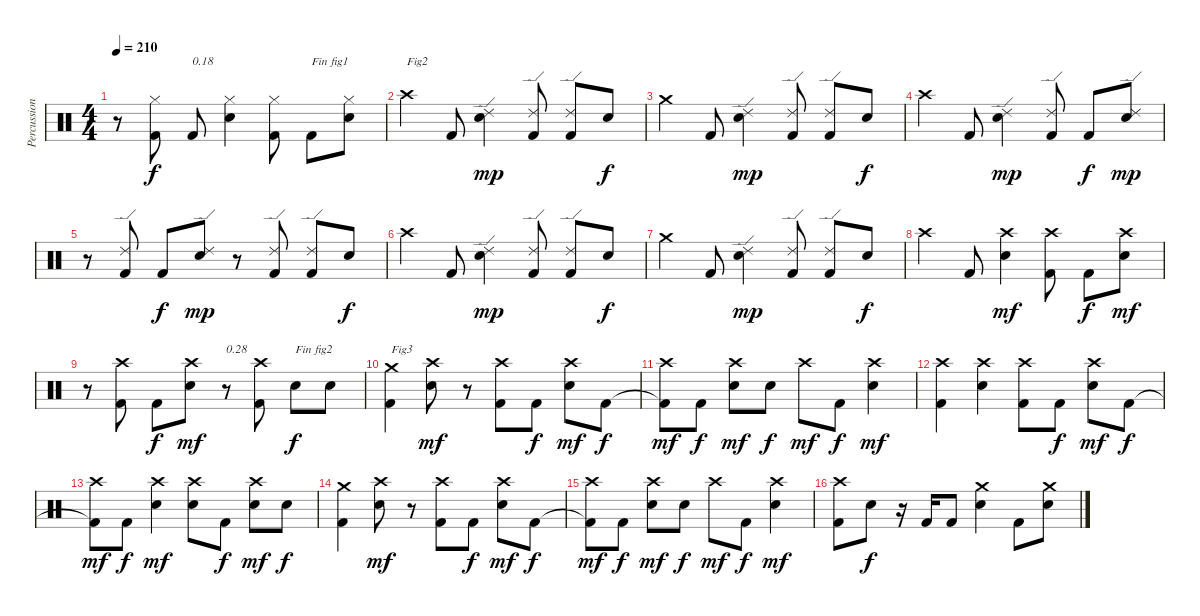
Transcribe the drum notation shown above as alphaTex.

\track ("Percussions" "Percussion") {instrument percussion}
\staff {score}
\articulation defaults
\ts (4 4)
\tempo 210
\clef neutral
\ks c
r.8{dy f} ("Kick (hit) 2" "Hi-Hat (closed)").8 "Kick (hit) 2".8{txt "0.18"} ("Electric Snare (hit)" "Hi-Hat (closed)").4 ("Kick (hit) 2" "Hi-Hat (closed)").8 "Kick (hit) 2".8{txt "Fin fig1"} ("Electric Snare (hit)" "Hi-Hat (closed)").8 |
"Crash high (hit)".4{txt "Fig2"} "Kick (hit) 2".8 ("Electric Snare (hit)" "Ride (edge) 2").4{dy mp} ("Kick (hit) 2" "Ride (edge) 2").8 ("Kick (hit) 2" "Ride (edge) 2").8 "Electric Snare (hit)".8{dy f} |
"Crash medium (hit)".4 "Kick (hit) 2".8 ("Electric Snare (hit)" "Ride (edge) 2").4{dy mp} ("Kick (hit) 2" "Ride (edge) 2").8 ("Kick (hit) 2" "Ride (edge) 2").8 "Electric Snare (hit)".8{dy f} |
"Crash high (hit)".4 "Kick (hit) 2".8 ("Electric Snare (hit)" "Ride (edge) 2").4{dy mp} ("Kick (hit) 2" "Ride (edge) 2").8 "Kick (hit) 2".8{dy f} ("Electric Snare (hit)" "Ride (edge) 2").8{dy mp} |
r.8 ("Kick (hit) 2" "Ride (edge) 2").8 "Kick (hit) 2".8{dy f} ("Electric Snare (hit)" "Ride (edge) 2").8{dy mp} r.8 ("Kick (hit) 2" "Ride (edge) 2").8 ("Kick (hit) 2" "Ride (edge) 2").8 "Electric Snare (hit)".8{dy f} |
"Crash high (hit)".4 "Kick (hit) 2".8 ("Electric Snare (hit)" "Ride (edge) 2").4{dy mp} ("Kick (hit) 2" "Ride (edge) 2").8 ("Kick (hit) 2" "Ride (edge) 2").8 "Electric Snare (hit)".8{dy f} |
"Crash medium (hit)".4 "Kick (hit) 2".8 ("Electric Snare (hit)" "Ride (edge) 2").4{dy mp} ("Kick (hit) 2" "Ride (edge) 2").8 ("Kick (hit) 2" "Ride (edge) 2").8 "Electric Snare (hit)".8{dy f} |
"Crash high (hit)".4 "Kick (hit) 2".8 ("Electric Snare (hit)" "Crash high (hit)").4{dy mf} ("Kick (hit) 2" "Crash high (hit)").8 "Kick (hit) 2".8{dy f} ("Electric Snare (hit)" "Crash high (hit)").8{dy mf} |
r.8 ("Kick (hit) 2" "Crash high (hit)").8 "Kick (hit) 2".8{dy f} ("Electric Snare (hit)" "Crash high (hit)").8{dy mf} r.8{txt "0.28"} ("Kick (hit) 2" "Crash high (hit)").8 "Electric Snare (hit)".8{txt "Fin fig2" dy f} "Electric Snare (hit)".8 |
("Kick (hit) 2" "Crash medium (hit)").4{txt "Fig3"} ("Electric Snare (hit)" "Crash high (hit)").8{dy mf} r.8 ("Kick (hit) 2" "Crash high (hit)").8 "Kick (hit) 2".8{dy f} ("Electric Snare (hit)" "Crash high (hit)").8{dy mf} "Kick (hit) 2".8{dy f} |
("Kick (hit) 2"{t} "Crash high (hit)").8{dy mf} "Kick (hit) 2".8{dy f} ("Electric Snare (hit)" "Crash high (hit)").8{dy mf} "Electric Snare (hit)".8{dy f} "Crash high (hit)".8{dy mf} "Kick (hit) 2".8{dy f} ("Electric Snare (hit)" "Crash high (hit)").4{dy mf} |
("Kick (hit) 2" "Crash high (hit)").4 ("Electric Snare (hit)" "Crash high (hit)").4 ("Kick (hit) 2" "Crash high (hit)").8 "Kick (hit) 2".8{dy f} ("Electric Snare (hit)" "Crash high (hit)").8{dy mf} "Kick (hit) 2".8{dy f} |
("Kick (hit) 2"{t} "Crash high (hit)").8{dy mf} "Kick (hit) 2".8{dy f} ("Electric Snare (hit)" "Crash high (hit)").4{dy mf} ("Electric Snare (hit)" "Crash high (hit)").8 "Kick (hit) 2".8{dy f} ("Electric Snare (hit)" "Crash high (hit)").8{dy mf} "Electric Snare (hit)".8{dy f} |
("Kick (hit) 2" "Crash medium (hit)").4 ("Electric Snare (hit)" "Crash high (hit)").8{dy mf} r.8 ("Kick (hit) 2" "Crash high (hit)").8 "Kick (hit) 2".8{dy f} ("Electric Snare (hit)" "Crash high (hit)").8{dy mf} "Kick (hit) 2".8{dy f} |
("Kick (hit) 2"{t} "Crash high (hit)").8{dy mf} "Kick (hit) 2".8{dy f} ("Electric Snare (hit)" "Crash high (hit)").8{dy mf} "Electric Snare (hit)".8{dy f} "Crash high (hit)".8{dy mf} "Kick (hit) 2".8{dy f} ("Electric Snare (hit)" "Crash high (hit)").4{dy mf} |
("Kick (hit) 2" "Crash high (hit)").8 "Electric Snare (hit)".8{dy f} r.16 "Kick (hit) 2".16 "Kick (hit) 2".8 ("Electric Snare (hit)" "Crash medium (hit)").4 "Kick (hit) 2".8 ("Electric Snare (hit)" "Crash medium (hit)").8
